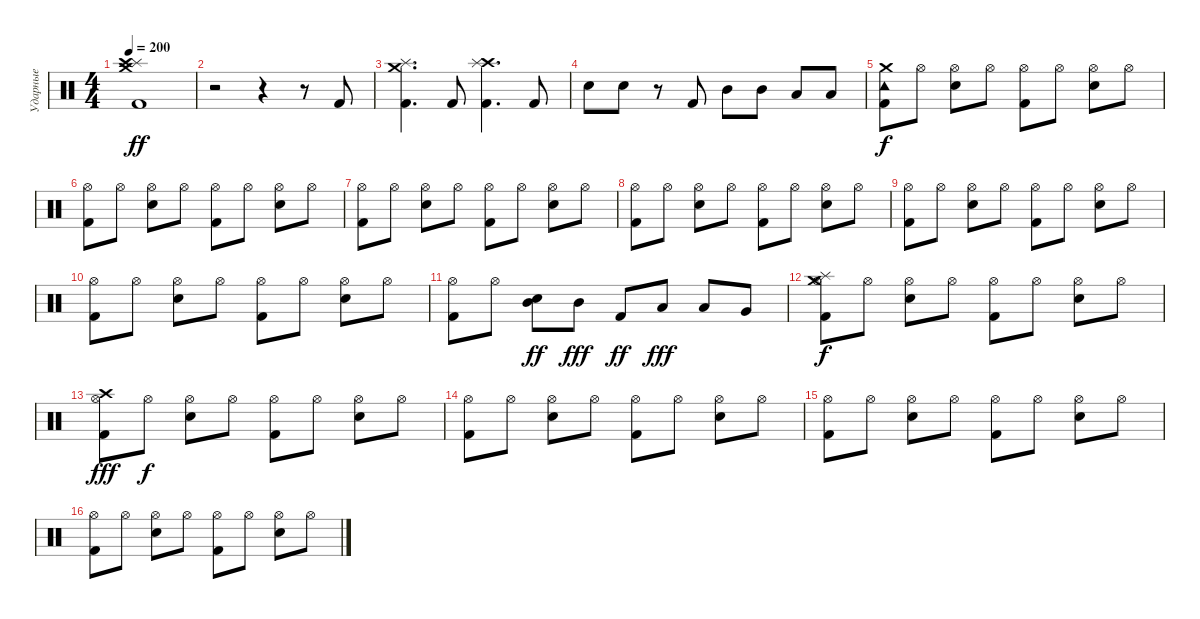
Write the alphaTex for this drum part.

\track ("Ударные" "Ударные") {instrument percussion}
\staff {score}
\articulation defaults
\ts (4 4)
\tempo 200
\clef neutral
\ks c
("Crash medium (hit)" "Splash (hit)" "Crash high (hit)" "Kick (hit) 2").1{dy ff volume 14} |
r.2 r.4 r.8 "Kick (hit) 2".8 |
("Crash medium (hit)" "Splash (hit)" "Kick (hit) 2").4{d} "Kick (hit) 2".8 ("Crash high (hit)" "Splash (hit)" "Kick (hit) 2").4{d} "Kick (hit) 2".8 |
"Electric Snare (hit)".8 "Electric Snare (hit)".8 r.8 "Kick (hit) 2".8 "Mid Tom (hit)".8 "Mid Tom (hit)".8 "Low Tom (hit)".8 "Low Tom (hit)".8 |
("Crash medium (hit)" "Tambourine (hit)" "Kick (hit) 2").8{dy f} "Hi-Hat (open)".8 ("Hi-Hat (open)" "Electric Snare (hit)").8 "Hi-Hat (open)".8 ("Hi-Hat (open)" "Kick (hit) 2").8 "Hi-Hat (open)".8 ("Hi-Hat (open)" "Electric Snare (hit)").8 "Hi-Hat (open)".8 |
("Hi-Hat (open)" "Kick (hit) 2").8 "Hi-Hat (open)".8 ("Hi-Hat (open)" "Electric Snare (hit)").8 "Hi-Hat (open)".8 ("Hi-Hat (open)" "Kick (hit) 2").8 "Hi-Hat (open)".8 ("Hi-Hat (open)" "Electric Snare (hit)").8 "Hi-Hat (open)".8 |
("Hi-Hat (open)" "Kick (hit) 2").8 "Hi-Hat (open)".8 ("Hi-Hat (open)" "Electric Snare (hit)").8 "Hi-Hat (open)".8 ("Hi-Hat (open)" "Kick (hit) 2").8 "Hi-Hat (open)".8 ("Hi-Hat (open)" "Electric Snare (hit)").8 "Hi-Hat (open)".8 |
("Hi-Hat (open)" "Kick (hit) 2").8 "Hi-Hat (open)".8 ("Hi-Hat (open)" "Electric Snare (hit)").8 "Hi-Hat (open)".8 ("Hi-Hat (open)" "Kick (hit) 2").8 "Hi-Hat (open)".8 ("Hi-Hat (open)" "Electric Snare (hit)").8 "Hi-Hat (open)".8 |
("Hi-Hat (open)" "Kick (hit) 2").8 "Hi-Hat (open)".8 ("Hi-Hat (open)" "Electric Snare (hit)").8 "Hi-Hat (open)".8 ("Hi-Hat (open)" "Kick (hit) 2").8 "Hi-Hat (open)".8 ("Hi-Hat (open)" "Electric Snare (hit)").8 "Hi-Hat (open)".8 |
("Hi-Hat (open)" "Kick (hit) 2").8 "Hi-Hat (open)".8 ("Hi-Hat (open)" "Electric Snare (hit)").8 "Hi-Hat (open)".8 ("Hi-Hat (open)" "Kick (hit) 2").8 "Hi-Hat (open)".8 ("Hi-Hat (open)" "Electric Snare (hit)").8 "Hi-Hat (open)".8 |
("Hi-Hat (open)" "Kick (hit) 2").8 "Hi-Hat (open)".8 ("Mid Tom (hit)" "Electric Snare (hit)").8{dy ff} "Mid Tom (hit)".8{dy fff} "Kick (hit) 2".8{dy ff} "Low Tom (hit)".8{dy fff} "Low Tom (hit)".8 "Very Low Tom (hit)".8 |
("Crash medium (hit)" "Splash (hit)" "Hi-Hat (open)" "Kick (hit) 2").8{dy f} "Hi-Hat (open)".8 ("Hi-Hat (open)" "Electric Snare (hit)").8 "Hi-Hat (open)".8 ("Hi-Hat (open)" "Kick (hit) 2").8 "Hi-Hat (open)".8 ("Hi-Hat (open)" "Electric Snare (hit)").8 "Hi-Hat (open)".8 |
("Crash high (hit)" "Hi-Hat (open)" "Kick (hit) 2").8{dy fff} "Hi-Hat (open)".8{dy f} ("Hi-Hat (open)" "Electric Snare (hit)").8 "Hi-Hat (open)".8 ("Hi-Hat (open)" "Kick (hit) 2").8 "Hi-Hat (open)".8 ("Hi-Hat (open)" "Electric Snare (hit)").8 "Hi-Hat (open)".8 |
("Hi-Hat (open)" "Kick (hit) 2").8 "Hi-Hat (open)".8 ("Hi-Hat (open)" "Electric Snare (hit)").8 "Hi-Hat (open)".8 ("Hi-Hat (open)" "Kick (hit) 2").8 "Hi-Hat (open)".8 ("Hi-Hat (open)" "Electric Snare (hit)").8 "Hi-Hat (open)".8 |
("Hi-Hat (open)" "Kick (hit) 2").8 "Hi-Hat (open)".8 ("Hi-Hat (open)" "Electric Snare (hit)").8 "Hi-Hat (open)".8 ("Hi-Hat (open)" "Kick (hit) 2").8 "Hi-Hat (open)".8 ("Hi-Hat (open)" "Electric Snare (hit)").8 "Hi-Hat (open)".8 |
("Hi-Hat (open)" "Kick (hit) 2").8 "Hi-Hat (open)".8 ("Hi-Hat (open)" "Electric Snare (hit)").8 "Hi-Hat (open)".8 ("Hi-Hat (open)" "Kick (hit) 2").8 "Hi-Hat (open)".8 ("Hi-Hat (open)" "Electric Snare (hit)").8 "Hi-Hat (open)".8
